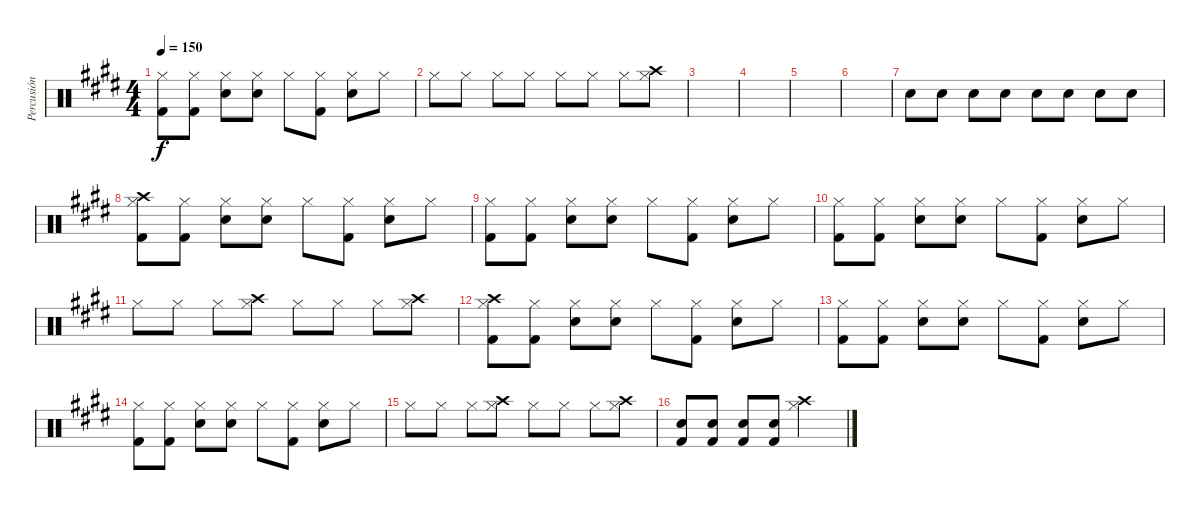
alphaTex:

\track ("Percusión" "Percusión") {instrument percussion}
\staff {score}
\articulation defaults
\ts (4 4)
\tempo 150
\clef neutral
\ks e
("Kick (hit) 2" "Hi-Hat (closed)").8{dy f} ("Kick (hit) 2" "Hi-Hat (closed)").8 ("Snare (hit) 2" "Hi-Hat (closed)").8 ("Snare (hit) 2" "Hi-Hat (closed)").8 "Hi-Hat (closed)".8 ("Kick (hit) 2" "Hi-Hat (closed)").8 ("Snare (hit) 2" "Hi-Hat (closed)").8 "Hi-Hat (closed)".8 |
"Hi-Hat (closed)".8 "Hi-Hat (closed)".8 "Hi-Hat (closed)".8 "Hi-Hat (closed)".8 "Hi-Hat (closed)".8 "Hi-Hat (closed)".8 "Hi-Hat (closed)".8 ("Crash high (hit)" "Hi-Hat (closed)").8 |
|
|
|
|
"Snare (hit) 2".8 "Snare (hit) 2".8 "Snare (hit) 2".8 "Snare (hit) 2".8 "Snare (hit) 2".8 "Snare (hit) 2".8 "Snare (hit) 2".8 "Snare (hit) 2".8 |
("Kick (hit) 2" "Hi-Hat (closed)" "Crash high (hit)").8 ("Kick (hit) 2" "Hi-Hat (closed)").8 ("Snare (hit) 2" "Hi-Hat (closed)").8 ("Snare (hit) 2" "Hi-Hat (closed)").8 "Hi-Hat (closed)".8 ("Kick (hit) 2" "Hi-Hat (closed)").8 ("Snare (hit) 2" "Hi-Hat (closed)").8 "Hi-Hat (closed)".8 |
("Kick (hit) 2" "Hi-Hat (closed)").8 ("Kick (hit) 2" "Hi-Hat (closed)").8 ("Snare (hit) 2" "Hi-Hat (closed)").8 ("Snare (hit) 2" "Hi-Hat (closed)").8 "Hi-Hat (closed)".8 ("Kick (hit) 2" "Hi-Hat (closed)").8 ("Snare (hit) 2" "Hi-Hat (closed)").8 "Hi-Hat (closed)".8 |
("Kick (hit) 2" "Hi-Hat (closed)").8 ("Kick (hit) 2" "Hi-Hat (closed)").8 ("Snare (hit) 2" "Hi-Hat (closed)").8 ("Snare (hit) 2" "Hi-Hat (closed)").8 "Hi-Hat (closed)".8 ("Kick (hit) 2" "Hi-Hat (closed)").8 ("Snare (hit) 2" "Hi-Hat (closed)").8 "Hi-Hat (closed)".8 |
"Hi-Hat (closed)".8 "Hi-Hat (closed)".8 "Hi-Hat (closed)".8 ("Hi-Hat (closed)" "Crash high (hit)").8 "Hi-Hat (closed)".8 "Hi-Hat (closed)".8 "Hi-Hat (closed)".8 ("Hi-Hat (closed)" "Crash high (hit)").8 |
("Kick (hit) 2" "Hi-Hat (closed)" "Crash high (hit)").8 ("Kick (hit) 2" "Hi-Hat (closed)").8 ("Snare (hit) 2" "Hi-Hat (closed)").8 ("Snare (hit) 2" "Hi-Hat (closed)").8 "Hi-Hat (closed)".8 ("Kick (hit) 2" "Hi-Hat (closed)").8 ("Snare (hit) 2" "Hi-Hat (closed)").8 "Hi-Hat (closed)".8 |
("Kick (hit) 2" "Hi-Hat (closed)").8 ("Kick (hit) 2" "Hi-Hat (closed)").8 ("Snare (hit) 2" "Hi-Hat (closed)").8 ("Snare (hit) 2" "Hi-Hat (closed)").8 "Hi-Hat (closed)".8 ("Kick (hit) 2" "Hi-Hat (closed)").8 ("Snare (hit) 2" "Hi-Hat (closed)").8 "Hi-Hat (closed)".8 |
("Kick (hit) 2" "Hi-Hat (closed)").8 ("Kick (hit) 2" "Hi-Hat (closed)").8 ("Snare (hit) 2" "Hi-Hat (closed)").8 ("Snare (hit) 2" "Hi-Hat (closed)").8 "Hi-Hat (closed)".8 ("Kick (hit) 2" "Hi-Hat (closed)").8 ("Snare (hit) 2" "Hi-Hat (closed)").8 "Hi-Hat (closed)".8 |
"Hi-Hat (closed)".8 "Hi-Hat (closed)".8 "Hi-Hat (closed)".8 ("Hi-Hat (closed)" "Crash high (hit)").8 "Hi-Hat (closed)".8 "Hi-Hat (closed)".8 "Hi-Hat (closed)".8 ("Hi-Hat (closed)" "Crash high (hit)").8 |
("Snare (hit) 2" "Kick (hit) 2").8 ("Snare (hit) 2" "Kick (hit) 2").8 ("Snare (hit) 2" "Kick (hit) 2").8 ("Snare (hit) 2" "Kick (hit) 2").8 ("Hi-Hat (closed)" "Crash high (hit)").2
